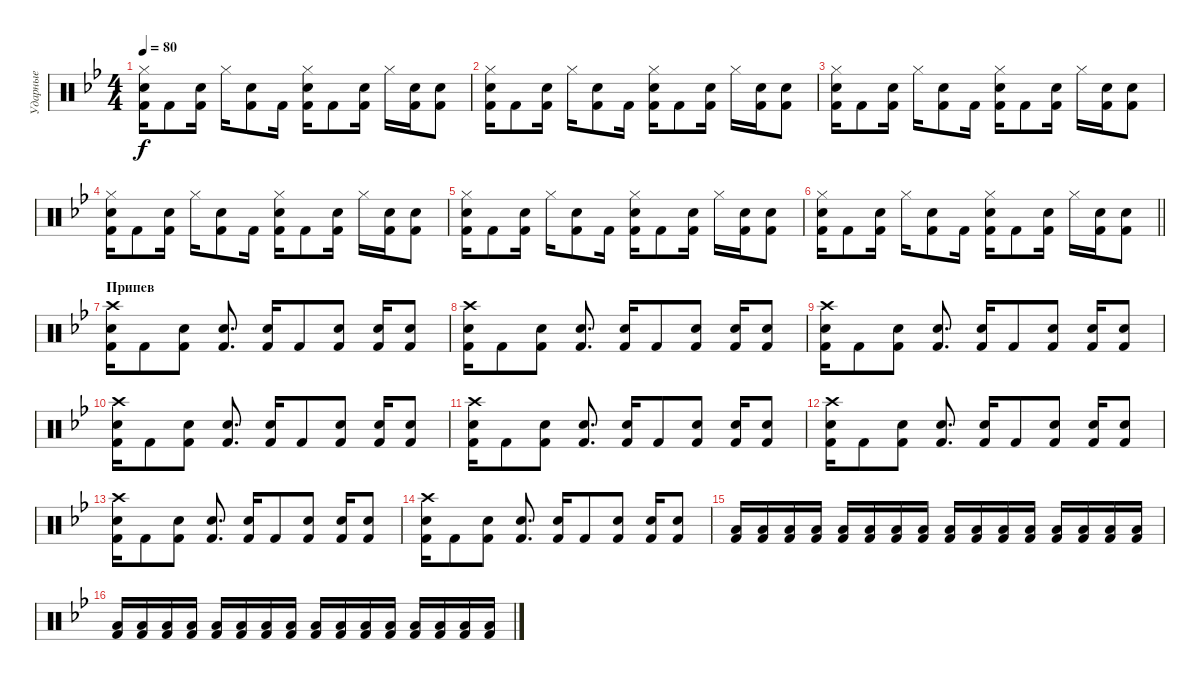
\track ("Ударные" "Ударные") {instrument percussion}
\staff {score}
\articulation defaults
\ts (4 4)
\tempo 80
\clef neutral
\ks gminor
("Hi-Hat (closed)" "Electric Snare (hit)" "Kick (hit) 2").16{dy f} "Kick (hit) 2".8 ("Electric Snare (hit)" "Kick (hit) 2").16 "Hi-Hat (closed)".16 ("Electric Snare (hit)" "Kick (hit) 2").8 "Kick (hit) 2".16 ("Hi-Hat (closed)" "Electric Snare (hit)" "Kick (hit) 2").16 "Kick (hit) 2".8 ("Electric Snare (hit)" "Kick (hit) 2").16 "Hi-Hat (closed)".16 ("Electric Snare (hit)" "Kick (hit) 2").16 ("Electric Snare (hit)" "Kick (hit) 2").8 |
("Hi-Hat (closed)" "Electric Snare (hit)" "Kick (hit) 2").16 "Kick (hit) 2".8 ("Electric Snare (hit)" "Kick (hit) 2").16 "Hi-Hat (closed)".16 ("Electric Snare (hit)" "Kick (hit) 2").8 "Kick (hit) 2".16 ("Hi-Hat (closed)" "Electric Snare (hit)" "Kick (hit) 2").16 "Kick (hit) 2".8 ("Electric Snare (hit)" "Kick (hit) 2").16 "Hi-Hat (closed)".16 ("Electric Snare (hit)" "Kick (hit) 2").16 ("Electric Snare (hit)" "Kick (hit) 2").8 |
("Hi-Hat (closed)" "Electric Snare (hit)" "Kick (hit) 2").16 "Kick (hit) 2".8 ("Electric Snare (hit)" "Kick (hit) 2").16 "Hi-Hat (closed)".16 ("Electric Snare (hit)" "Kick (hit) 2").8 "Kick (hit) 2".16 ("Hi-Hat (closed)" "Electric Snare (hit)" "Kick (hit) 2").16 "Kick (hit) 2".8 ("Electric Snare (hit)" "Kick (hit) 2").16 "Hi-Hat (closed)".16 ("Electric Snare (hit)" "Kick (hit) 2").16 ("Electric Snare (hit)" "Kick (hit) 2").8 |
("Hi-Hat (closed)" "Electric Snare (hit)" "Kick (hit) 2").16 "Kick (hit) 2".8 ("Electric Snare (hit)" "Kick (hit) 2").16 "Hi-Hat (closed)".16 ("Electric Snare (hit)" "Kick (hit) 2").8 "Kick (hit) 2".16 ("Hi-Hat (closed)" "Electric Snare (hit)" "Kick (hit) 2").16 "Kick (hit) 2".8 ("Electric Snare (hit)" "Kick (hit) 2").16 "Hi-Hat (closed)".16 ("Electric Snare (hit)" "Kick (hit) 2").16 ("Electric Snare (hit)" "Kick (hit) 2").8 |
("Hi-Hat (closed)" "Electric Snare (hit)" "Kick (hit) 2").16 "Kick (hit) 2".8 ("Electric Snare (hit)" "Kick (hit) 2").16 "Hi-Hat (closed)".16 ("Electric Snare (hit)" "Kick (hit) 2").8 "Kick (hit) 2".16 ("Hi-Hat (closed)" "Electric Snare (hit)" "Kick (hit) 2").16 "Kick (hit) 2".8 ("Electric Snare (hit)" "Kick (hit) 2").16 "Hi-Hat (closed)".16 ("Electric Snare (hit)" "Kick (hit) 2").16 ("Electric Snare (hit)" "Kick (hit) 2").8 |
\barLineRight lightlight
("Hi-Hat (closed)" "Electric Snare (hit)" "Kick (hit) 2").16 "Kick (hit) 2".8 ("Electric Snare (hit)" "Kick (hit) 2").16 "Hi-Hat (closed)".16 ("Electric Snare (hit)" "Kick (hit) 2").8 "Kick (hit) 2".16 ("Hi-Hat (closed)" "Electric Snare (hit)" "Kick (hit) 2").16 "Kick (hit) 2".8 ("Electric Snare (hit)" "Kick (hit) 2").16 "Hi-Hat (closed)".16 ("Electric Snare (hit)" "Kick (hit) 2").16 ("Electric Snare (hit)" "Kick (hit) 2").8 |
\section ("" "Припев")
("Crash high (hit)" "Electric Snare (hit)" "Kick (hit) 2").16 "Kick (hit) 2".8 ("Electric Snare (hit)" "Kick (hit) 2").8 ("Electric Snare (hit)" "Kick (hit) 2").8{d} ("Electric Snare (hit)" "Kick (hit) 2").16 "Kick (hit) 2".8 ("Electric Snare (hit)" "Kick (hit) 2").8 ("Electric Snare (hit)" "Kick (hit) 2").16 ("Electric Snare (hit)" "Kick (hit) 2").8 |
("Crash high (hit)" "Electric Snare (hit)" "Kick (hit) 2").16 "Kick (hit) 2".8 ("Electric Snare (hit)" "Kick (hit) 2").8 ("Electric Snare (hit)" "Kick (hit) 2").8{d} ("Electric Snare (hit)" "Kick (hit) 2").16 "Kick (hit) 2".8 ("Electric Snare (hit)" "Kick (hit) 2").8 ("Electric Snare (hit)" "Kick (hit) 2").16 ("Electric Snare (hit)" "Kick (hit) 2").8 |
("Crash high (hit)" "Electric Snare (hit)" "Kick (hit) 2").16 "Kick (hit) 2".8 ("Electric Snare (hit)" "Kick (hit) 2").8 ("Electric Snare (hit)" "Kick (hit) 2").8{d} ("Electric Snare (hit)" "Kick (hit) 2").16 "Kick (hit) 2".8 ("Electric Snare (hit)" "Kick (hit) 2").8 ("Electric Snare (hit)" "Kick (hit) 2").16 ("Electric Snare (hit)" "Kick (hit) 2").8 |
("Crash high (hit)" "Electric Snare (hit)" "Kick (hit) 2").16 "Kick (hit) 2".8 ("Electric Snare (hit)" "Kick (hit) 2").8 ("Electric Snare (hit)" "Kick (hit) 2").8{d} ("Electric Snare (hit)" "Kick (hit) 2").16 "Kick (hit) 2".8 ("Electric Snare (hit)" "Kick (hit) 2").8 ("Electric Snare (hit)" "Kick (hit) 2").16 ("Electric Snare (hit)" "Kick (hit) 2").8 |
("Crash high (hit)" "Electric Snare (hit)" "Kick (hit) 2").16 "Kick (hit) 2".8 ("Electric Snare (hit)" "Kick (hit) 2").8 ("Electric Snare (hit)" "Kick (hit) 2").8{d} ("Electric Snare (hit)" "Kick (hit) 2").16 "Kick (hit) 2".8 ("Electric Snare (hit)" "Kick (hit) 2").8 ("Electric Snare (hit)" "Kick (hit) 2").16 ("Electric Snare (hit)" "Kick (hit) 2").8 |
("Crash high (hit)" "Electric Snare (hit)" "Kick (hit) 2").16 "Kick (hit) 2".8 ("Electric Snare (hit)" "Kick (hit) 2").8 ("Electric Snare (hit)" "Kick (hit) 2").8{d} ("Electric Snare (hit)" "Kick (hit) 2").16 "Kick (hit) 2".8 ("Electric Snare (hit)" "Kick (hit) 2").8 ("Electric Snare (hit)" "Kick (hit) 2").16 ("Electric Snare (hit)" "Kick (hit) 2").8 |
("Crash high (hit)" "Electric Snare (hit)" "Kick (hit) 2").16 "Kick (hit) 2".8 ("Electric Snare (hit)" "Kick (hit) 2").8 ("Electric Snare (hit)" "Kick (hit) 2").8{d} ("Electric Snare (hit)" "Kick (hit) 2").16 "Kick (hit) 2".8 ("Electric Snare (hit)" "Kick (hit) 2").8 ("Electric Snare (hit)" "Kick (hit) 2").16 ("Electric Snare (hit)" "Kick (hit) 2").8 |
("Crash high (hit)" "Electric Snare (hit)" "Kick (hit) 2").16 "Kick (hit) 2".8 ("Electric Snare (hit)" "Kick (hit) 2").8 ("Electric Snare (hit)" "Kick (hit) 2").8{d} ("Electric Snare (hit)" "Kick (hit) 2").16 "Kick (hit) 2".8 ("Electric Snare (hit)" "Kick (hit) 2").8 ("Electric Snare (hit)" "Kick (hit) 2").16 ("Electric Snare (hit)" "Kick (hit) 2").8 |
("Low Tom (hit)" "Kick (hit) 2").16 ("Low Tom (hit)" "Kick (hit) 2").16 ("Low Tom (hit)" "Kick (hit) 2").16 ("Low Tom (hit)" "Kick (hit) 2").16 ("Low Tom (hit)" "Kick (hit) 2").16 ("Low Tom (hit)" "Kick (hit) 2").16 ("Low Tom (hit)" "Kick (hit) 2").16 ("Low Tom (hit)" "Kick (hit) 2").16 ("Low Tom (hit)" "Kick (hit) 2").16 ("Low Tom (hit)" "Kick (hit) 2").16 ("Low Tom (hit)" "Kick (hit) 2").16 ("Low Tom (hit)" "Kick (hit) 2").16 ("Low Tom (hit)" "Kick (hit) 2").16 ("Low Tom (hit)" "Kick (hit) 2").16 ("Low Tom (hit)" "Kick (hit) 2").16 ("Low Tom (hit)" "Kick (hit) 2").16 |
("Low Tom (hit)" "Kick (hit) 2").16 ("Low Tom (hit)" "Kick (hit) 2").16 ("Low Tom (hit)" "Kick (hit) 2").16 ("Low Tom (hit)" "Kick (hit) 2").16 ("Low Tom (hit)" "Kick (hit) 2").16 ("Low Tom (hit)" "Kick (hit) 2").16 ("Low Tom (hit)" "Kick (hit) 2").16 ("Low Tom (hit)" "Kick (hit) 2").16 ("Low Tom (hit)" "Kick (hit) 2").16 ("Low Tom (hit)" "Kick (hit) 2").16 ("Low Tom (hit)" "Kick (hit) 2").16 ("Low Tom (hit)" "Kick (hit) 2").16 ("Low Tom (hit)" "Kick (hit) 2").16 ("Low Tom (hit)" "Kick (hit) 2").16 ("Low Tom (hit)" "Kick (hit) 2").16 ("Low Tom (hit)" "Kick (hit) 2").16
